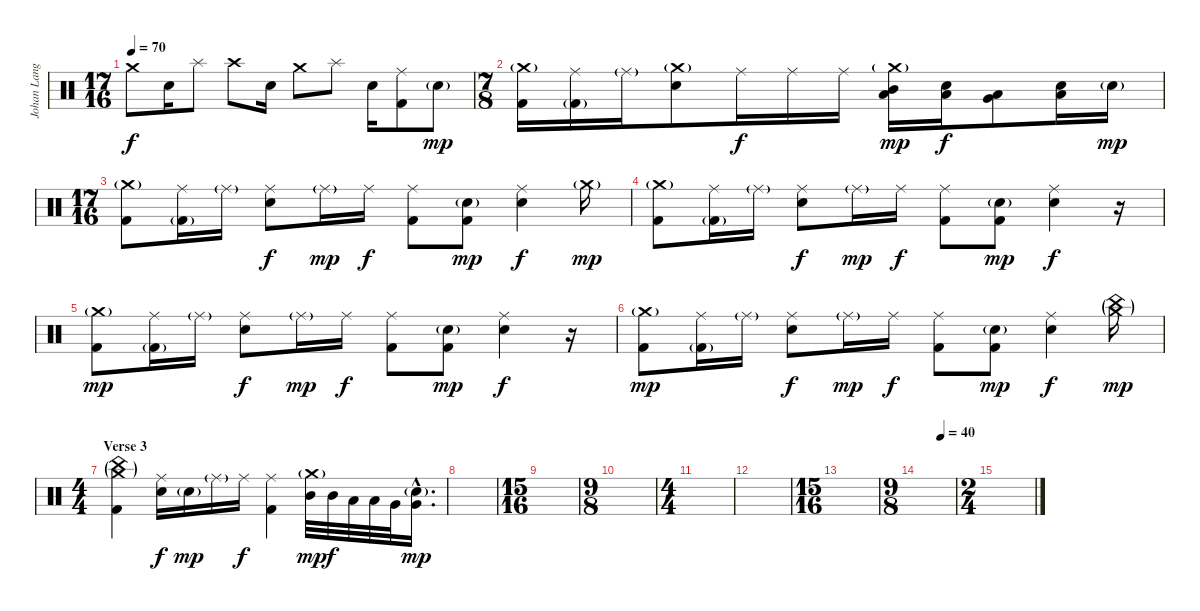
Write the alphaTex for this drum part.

\track ("Johan Langell" "Johan Lang") {instrument percussion}
\staff {score}
\articulation defaults
\ts (17 16)
\tempo 70
\clef neutral
\ks c "Crash medium (hit)".8{dy f} "Snare (hit) 2".16 "Splash (hit)".8 "Crash high (hit)".8 "Snare (hit) 2".16 "Crash medium (hit)".8 "Splash (hit)".8 "Snare (hit) 2".16
("Ride (middle)" "Kick (hit) 2").8 "Snare (hit) 2"{g}.8{dy mp} |
\ts (7 8)
("Crash medium (hit)"{g} "Kick (hit) 2").16 ("Ride (middle)" "Kick (hit) 2"{g}).16 "Ride (middle)"{g}.16 ("Crash medium (hit)"{g} "Snare (hit) 2").8 "Ride (middle)".16{dy f} "Ride (middle)".16 "Ride (middle)".16 ("Crash medium (hit)"{g} "Mid Tom (hit)" "Low Tom (hit)").16{dy mp} ("Low Tom (hit)" "Snare (hit) 2").16{dy f} ("Very Low Tom (hit)" "Low Floor Tom (hit)").8 ("Low Floor Tom (hit)" "Snare (hit) 2").16 "Snare (hit) 2"{g}.16{dy mp} |
\ts (17 16)
("Crash medium (hit)"{g} "Kick (hit) 2").8 ("Ride (middle)" "Kick (hit) 2"{g}).16 "Ride (middle)"{g}.16 ("Ride (middle)" "Snare (hit) 2").8{dy f} "Ride (middle)"{g}.16{dy mp} "Ride (middle)".16{dy f} ("Ride (middle)" "Kick (hit) 2").8 ("Snare (hit) 2"{g} "Kick (hit) 2").8{dy mp} ("Ride (middle)" "Snare (hit) 2").4{dy f} "Crash medium (hit)"{g}.16{dy mp} |
("Crash medium (hit)"{g} "Kick (hit) 2").8 ("Ride (middle)" "Kick (hit) 2"{g}).16 "Ride (middle)"{g}.16 ("Ride (middle)" "Snare (hit) 2").8{dy f} "Ride (middle)"{g}.16{dy mp} "Ride (middle)".16{dy f} ("Ride (middle)" "Kick (hit) 2").8 ("Snare (hit) 2"{g} "Kick (hit) 2").8{dy mp} ("Ride (middle)" "Snare (hit) 2").4{dy f} r.16 |
("Crash medium (hit)"{g} "Kick (hit) 2").8{dy mp} ("Ride (middle)" "Kick (hit) 2"{g}).16 "Ride (middle)"{g}.16 ("Ride (middle)" "Snare (hit) 2").8{dy f} "Ride (middle)"{g}.16{dy mp} "Ride (middle)".16{dy f} ("Ride (middle)" "Kick (hit) 2").8 ("Snare (hit) 2"{g} "Kick (hit) 2").8{dy mp} ("Ride (middle)" "Snare (hit) 2").4{dy f} r.16 |
("Crash medium (hit)"{g} "Kick (hit) 2").8{dy mp} ("Ride (middle)" "Kick (hit) 2"{g}).16 "Ride (middle)"{g}.16 ("Ride (middle)" "Snare (hit) 2").8{dy f} "Ride (middle)"{g}.16{dy mp} "Ride (middle)".16{dy f} ("Ride (middle)" "Kick (hit) 2").8 ("Snare (hit) 2"{g} "Kick (hit) 2").8{dy mp} ("Ride (middle)" "Snare (hit) 2").4{dy f} ("China (hit)"{g} "Crash medium (hit)"{g}).16{dy mp} |
\ts (4 4)
\section ("" "Verse 3")
("China (hit)"{g} "Crash medium (hit)"{g} "Kick (hit) 2").4 ("Ride (middle)" "Snare (hit) 2").16{dy f} "Snare (hit) 2"{g}.16{dy mp} "Ride (middle)"{g}.16 "Ride (middle)".16{dy f} ("Ride (middle)" "Kick (hit) 2").4 ("Crash medium (hit)"{g} "Mid Tom (hit)").32{dy mp} "Mid Tom (hit)".32{dy f} "Low Tom (hit)".32 "Low Tom (hit)".32 "Very Low Tom (hit)".32 ("Very Low Tom (hit)"{hac} "Snare (hit) 2"{g hac}).16{d dy mp} |
|
\ts (15 16)
|
\ts (9 8)
|
\ts (4 4)
|
|
\ts (15 16)
|
\ts (9 8)
\tempo (40 0.6111111111111112)
|
\ts (2 4)
